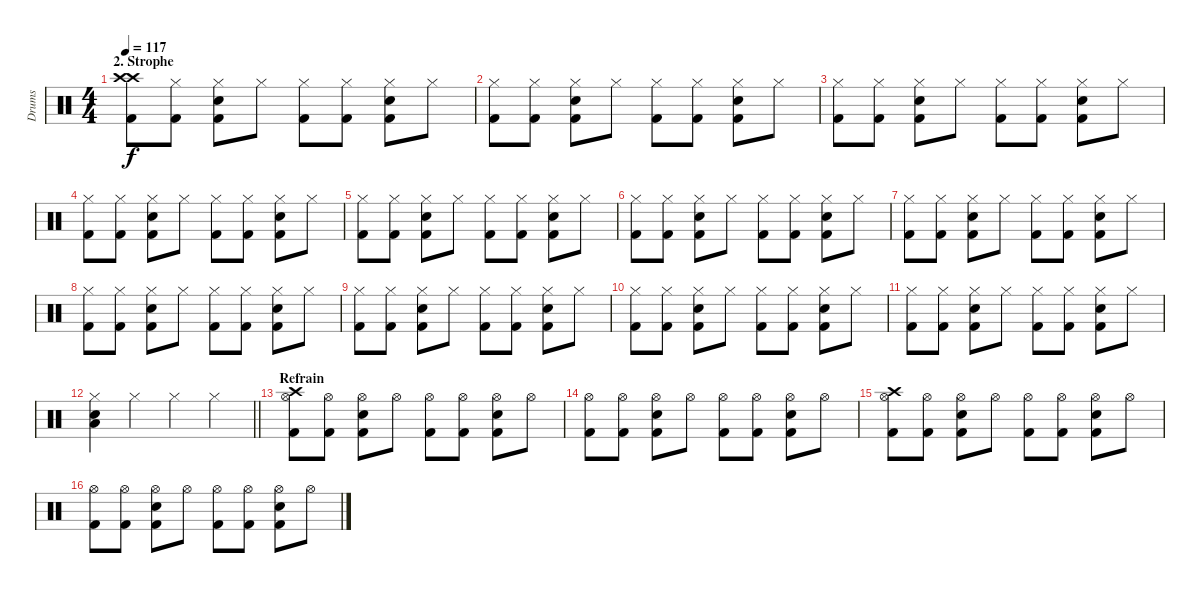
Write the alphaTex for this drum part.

\track ("Drums" "Drums") {instrument percussion}
\staff {score}
\articulation defaults
\ts (4 4)
\section ("" "2. Strophe")
\tempo 117
\clef neutral
\ks c
("Kick (hit) 2" "Crash high (hit)" "Crash high (hit)").8{dy f volume 13} ("Kick (hit) 2" "Hi-Hat (closed)").8 ("Kick (hit) 2" "Hi-Hat (closed)" "Snare (hit) 2").8 "Hi-Hat (closed)".8 ("Kick (hit) 2" "Hi-Hat (closed)").8 ("Kick (hit) 2" "Hi-Hat (closed)").8 ("Kick (hit) 2" "Hi-Hat (closed)" "Snare (hit) 2").8 "Hi-Hat (closed)".8 |
("Kick (hit) 2" "Hi-Hat (closed)").8 ("Kick (hit) 2" "Hi-Hat (closed)").8 ("Kick (hit) 2" "Hi-Hat (closed)" "Snare (hit) 2").8 "Hi-Hat (closed)".8 ("Kick (hit) 2" "Hi-Hat (closed)").8 ("Kick (hit) 2" "Hi-Hat (closed)").8 ("Kick (hit) 2" "Hi-Hat (closed)" "Snare (hit) 2").8 "Hi-Hat (closed)".8 |
("Kick (hit) 2" "Hi-Hat (closed)").8 ("Kick (hit) 2" "Hi-Hat (closed)").8 ("Kick (hit) 2" "Hi-Hat (closed)" "Snare (hit) 2").8 "Hi-Hat (closed)".8 ("Kick (hit) 2" "Hi-Hat (closed)").8 ("Kick (hit) 2" "Hi-Hat (closed)").8 ("Kick (hit) 2" "Hi-Hat (closed)" "Snare (hit) 2").8 "Hi-Hat (closed)".8 |
("Kick (hit) 2" "Hi-Hat (closed)").8 ("Kick (hit) 2" "Hi-Hat (closed)").8 ("Kick (hit) 2" "Hi-Hat (closed)" "Snare (hit) 2").8 "Hi-Hat (closed)".8 ("Kick (hit) 2" "Hi-Hat (closed)").8 ("Kick (hit) 2" "Hi-Hat (closed)").8 ("Kick (hit) 2" "Hi-Hat (closed)" "Snare (hit) 2").8 "Hi-Hat (closed)".8 |
("Kick (hit) 2" "Hi-Hat (closed)").8 ("Kick (hit) 2" "Hi-Hat (closed)").8 ("Kick (hit) 2" "Hi-Hat (closed)" "Snare (hit) 2").8 "Hi-Hat (closed)".8 ("Kick (hit) 2" "Hi-Hat (closed)").8 ("Kick (hit) 2" "Hi-Hat (closed)").8 ("Kick (hit) 2" "Hi-Hat (closed)" "Snare (hit) 2").8 "Hi-Hat (closed)".8 |
("Kick (hit) 2" "Hi-Hat (closed)").8 ("Kick (hit) 2" "Hi-Hat (closed)").8 ("Kick (hit) 2" "Hi-Hat (closed)" "Snare (hit) 2").8 "Hi-Hat (closed)".8 ("Kick (hit) 2" "Hi-Hat (closed)").8 ("Kick (hit) 2" "Hi-Hat (closed)").8 ("Kick (hit) 2" "Hi-Hat (closed)" "Snare (hit) 2").8 "Hi-Hat (closed)".8 |
("Kick (hit) 2" "Hi-Hat (closed)").8 ("Kick (hit) 2" "Hi-Hat (closed)").8 ("Kick (hit) 2" "Hi-Hat (closed)" "Snare (hit) 2").8 "Hi-Hat (closed)".8 ("Kick (hit) 2" "Hi-Hat (closed)").8 ("Kick (hit) 2" "Hi-Hat (closed)").8 ("Kick (hit) 2" "Hi-Hat (closed)" "Snare (hit) 2").8 "Hi-Hat (closed)".8 |
("Kick (hit) 2" "Hi-Hat (closed)").8 ("Kick (hit) 2" "Hi-Hat (closed)").8 ("Kick (hit) 2" "Hi-Hat (closed)" "Snare (hit) 2").8 "Hi-Hat (closed)".8 ("Kick (hit) 2" "Hi-Hat (closed)").8 ("Kick (hit) 2" "Hi-Hat (closed)").8 ("Kick (hit) 2" "Hi-Hat (closed)" "Snare (hit) 2").8 "Hi-Hat (closed)".8 |
("Kick (hit) 2" "Hi-Hat (closed)").8 ("Kick (hit) 2" "Hi-Hat (closed)").8 ("Kick (hit) 2" "Hi-Hat (closed)" "Snare (hit) 2").8 "Hi-Hat (closed)".8 ("Kick (hit) 2" "Hi-Hat (closed)").8 ("Kick (hit) 2" "Hi-Hat (closed)").8 ("Kick (hit) 2" "Hi-Hat (closed)" "Snare (hit) 2").8 "Hi-Hat (closed)".8 |
("Kick (hit) 2" "Hi-Hat (closed)").8 ("Kick (hit) 2" "Hi-Hat (closed)").8 ("Kick (hit) 2" "Hi-Hat (closed)" "Snare (hit) 2").8 "Hi-Hat (closed)".8 ("Kick (hit) 2" "Hi-Hat (closed)").8 ("Kick (hit) 2" "Hi-Hat (closed)").8 ("Kick (hit) 2" "Hi-Hat (closed)" "Snare (hit) 2").8 "Hi-Hat (closed)".8 |
("Kick (hit) 2" "Hi-Hat (closed)").8 ("Kick (hit) 2" "Hi-Hat (closed)").8 ("Kick (hit) 2" "Hi-Hat (closed)" "Snare (hit) 2").8 "Hi-Hat (closed)".8 ("Kick (hit) 2" "Hi-Hat (closed)").8 ("Kick (hit) 2" "Hi-Hat (closed)").8 ("Kick (hit) 2" "Hi-Hat (closed)" "Snare (hit) 2").8 "Hi-Hat (closed)".8 |
\barLineRight lightlight
("Low Floor Tom (hit)" "Hi-Hat (closed)" "Snare (hit) 2").4 "Hi-Hat (closed)".4 "Hi-Hat (closed)".4 "Hi-Hat (closed)".4 |
\section ("" "Refrain")
("Kick (hit) 2" "Hi-Hat (open)" "Crash high (hit)").8 ("Kick (hit) 2" "Hi-Hat (open)").8 ("Kick (hit) 2" "Hi-Hat (open)" "Snare (hit) 2").8 "Hi-Hat (open)".8 ("Kick (hit) 2" "Hi-Hat (open)").8 ("Kick (hit) 2" "Hi-Hat (open)").8 ("Kick (hit) 2" "Hi-Hat (open)" "Snare (hit) 2").8 "Hi-Hat (open)".8 |
("Kick (hit) 2" "Hi-Hat (open)").8 ("Kick (hit) 2" "Hi-Hat (open)").8 ("Kick (hit) 2" "Hi-Hat (open)" "Snare (hit) 2").8 "Hi-Hat (open)".8 ("Kick (hit) 2" "Hi-Hat (open)").8 ("Kick (hit) 2" "Hi-Hat (open)").8 ("Kick (hit) 2" "Hi-Hat (open)" "Snare (hit) 2").8 "Hi-Hat (open)".8 |
("Kick (hit) 2" "Hi-Hat (open)" "Crash high (hit)").8 ("Kick (hit) 2" "Hi-Hat (open)").8 ("Kick (hit) 2" "Hi-Hat (open)" "Snare (hit) 2").8 "Hi-Hat (open)".8 ("Kick (hit) 2" "Hi-Hat (open)").8 ("Kick (hit) 2" "Hi-Hat (open)").8 ("Kick (hit) 2" "Hi-Hat (open)" "Snare (hit) 2").8 "Hi-Hat (open)".8 |
("Kick (hit) 2" "Hi-Hat (open)").8 ("Kick (hit) 2" "Hi-Hat (open)").8 ("Kick (hit) 2" "Hi-Hat (open)" "Snare (hit) 2").8 "Hi-Hat (open)".8 ("Kick (hit) 2" "Hi-Hat (open)").8 ("Kick (hit) 2" "Hi-Hat (open)").8 ("Kick (hit) 2" "Hi-Hat (open)" "Snare (hit) 2").8 "Hi-Hat (open)".8
